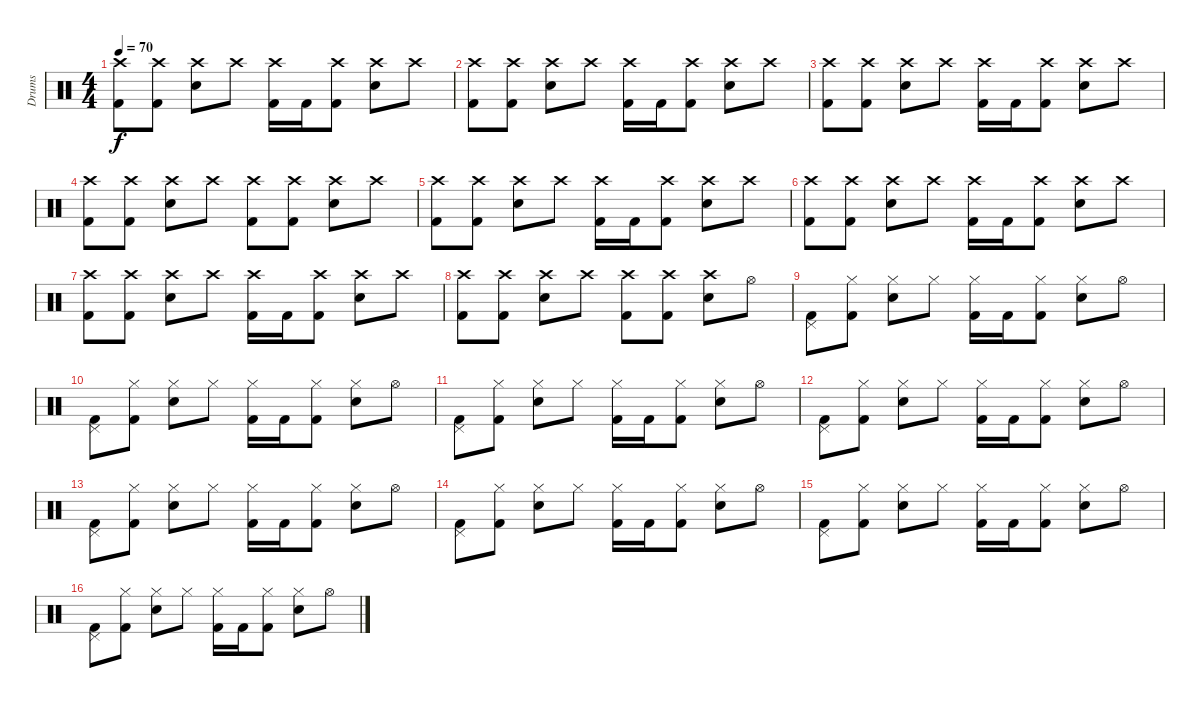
\track ("Drums" "Drums") {instrument percussion}
\staff {score}
\articulation defaults
\ts (4 4)
\tempo 70
\clef neutral
\ks c
("Crash high (hit)" "Kick (hit) 2").8{dy f} ("Crash high (hit)" "Kick (hit) 2").8 ("Crash high (hit)" "Electric Snare (hit)").8 "Crash high (hit)".8 ("Crash high (hit)" "Kick (hit) 2").16 "Kick (hit) 2".16 ("Crash high (hit)" "Kick (hit) 2").8 ("Crash high (hit)" "Electric Snare (hit)").8 "Crash high (hit)".8 |
("Crash high (hit)" "Kick (hit) 2").8 ("Crash high (hit)" "Kick (hit) 2").8 ("Crash high (hit)" "Electric Snare (hit)").8 "Crash high (hit)".8 ("Crash high (hit)" "Kick (hit) 2").16 "Kick (hit) 2".16 ("Crash high (hit)" "Kick (hit) 2").8 ("Crash high (hit)" "Electric Snare (hit)").8 "Crash high (hit)".8 |
("Crash high (hit)" "Kick (hit) 2").8 ("Crash high (hit)" "Kick (hit) 2").8 ("Crash high (hit)" "Electric Snare (hit)").8 "Crash high (hit)".8 ("Crash high (hit)" "Kick (hit) 2").16 "Kick (hit) 2".16 ("Crash high (hit)" "Kick (hit) 2").8 ("Crash high (hit)" "Electric Snare (hit)").8 "Crash high (hit)".8 |
("Crash high (hit)" "Kick (hit) 2").8 ("Crash high (hit)" "Kick (hit) 2").8 ("Crash high (hit)" "Electric Snare (hit)").8 "Crash high (hit)".8 ("Crash high (hit)" "Kick (hit) 2").8 ("Crash high (hit)" "Kick (hit) 2").8 ("Crash high (hit)" "Electric Snare (hit)").8 "Crash high (hit)".8 |
("Crash high (hit)" "Kick (hit) 2").8 ("Crash high (hit)" "Kick (hit) 2").8 ("Crash high (hit)" "Electric Snare (hit)").8 "Crash high (hit)".8 ("Crash high (hit)" "Kick (hit) 2").16 "Kick (hit) 2".16 ("Crash high (hit)" "Kick (hit) 2").8 ("Crash high (hit)" "Electric Snare (hit)").8 "Crash high (hit)".8 |
("Crash high (hit)" "Kick (hit) 2").8 ("Crash high (hit)" "Kick (hit) 2").8 ("Crash high (hit)" "Electric Snare (hit)").8 "Crash high (hit)".8 ("Crash high (hit)" "Kick (hit) 2").16 "Kick (hit) 2".16 ("Crash high (hit)" "Kick (hit) 2").8 ("Crash high (hit)" "Electric Snare (hit)").8 "Crash high (hit)".8 |
("Crash high (hit)" "Kick (hit) 2").8 ("Crash high (hit)" "Kick (hit) 2").8 ("Crash high (hit)" "Electric Snare (hit)").8 "Crash high (hit)".8 ("Crash high (hit)" "Kick (hit) 2").16 "Kick (hit) 2".16 ("Crash high (hit)" "Kick (hit) 2").8 ("Crash high (hit)" "Electric Snare (hit)").8 "Crash high (hit)".8 |
("Crash high (hit)" "Kick (hit) 2").8 ("Crash high (hit)" "Kick (hit) 2").8 ("Crash high (hit)" "Electric Snare (hit)").8 "Crash high (hit)".8 ("Crash high (hit)" "Kick (hit) 2").8 ("Crash high (hit)" "Kick (hit) 2").8 ("Crash high (hit)" "Electric Snare (hit)").8 "Hi-Hat (open)".8 |
("Pedal Hi-Hat (hit)" "Kick (hit) 2").8 ("Hi-Hat (closed)" "Kick (hit) 2").8 ("Hi-Hat (closed)" "Electric Snare (hit)").8 "Hi-Hat (closed)".8 ("Hi-Hat (closed)" "Kick (hit) 2").16 "Kick (hit) 2".16 ("Hi-Hat (closed)" "Kick (hit) 2").8 ("Hi-Hat (closed)" "Electric Snare (hit)").8 "Hi-Hat (open)".8 |
("Pedal Hi-Hat (hit)" "Kick (hit) 2").8 ("Hi-Hat (closed)" "Kick (hit) 2").8 ("Hi-Hat (closed)" "Electric Snare (hit)").8 "Hi-Hat (closed)".8 ("Hi-Hat (closed)" "Kick (hit) 2").16 "Kick (hit) 2".16 ("Hi-Hat (closed)" "Kick (hit) 2").8 ("Hi-Hat (closed)" "Electric Snare (hit)").8 "Hi-Hat (open)".8 |
("Pedal Hi-Hat (hit)" "Kick (hit) 2").8 ("Hi-Hat (closed)" "Kick (hit) 2").8 ("Hi-Hat (closed)" "Electric Snare (hit)").8 "Hi-Hat (closed)".8 ("Hi-Hat (closed)" "Kick (hit) 2").16 "Kick (hit) 2".16 ("Hi-Hat (closed)" "Kick (hit) 2").8 ("Hi-Hat (closed)" "Electric Snare (hit)").8 "Hi-Hat (open)".8 |
("Pedal Hi-Hat (hit)" "Kick (hit) 2").8 ("Hi-Hat (closed)" "Kick (hit) 2").8 ("Hi-Hat (closed)" "Electric Snare (hit)").8 "Hi-Hat (closed)".8 ("Hi-Hat (closed)" "Kick (hit) 2").16 "Kick (hit) 2".16 ("Hi-Hat (closed)" "Kick (hit) 2").8 ("Hi-Hat (closed)" "Electric Snare (hit)").8 "Hi-Hat (open)".8 |
("Pedal Hi-Hat (hit)" "Kick (hit) 2").8 ("Hi-Hat (closed)" "Kick (hit) 2").8 ("Hi-Hat (closed)" "Electric Snare (hit)").8 "Hi-Hat (closed)".8 ("Hi-Hat (closed)" "Kick (hit) 2").16 "Kick (hit) 2".16 ("Hi-Hat (closed)" "Kick (hit) 2").8 ("Hi-Hat (closed)" "Electric Snare (hit)").8 "Hi-Hat (open)".8 |
("Pedal Hi-Hat (hit)" "Kick (hit) 2").8 ("Hi-Hat (closed)" "Kick (hit) 2").8 ("Hi-Hat (closed)" "Electric Snare (hit)").8 "Hi-Hat (closed)".8 ("Hi-Hat (closed)" "Kick (hit) 2").16 "Kick (hit) 2".16 ("Hi-Hat (closed)" "Kick (hit) 2").8 ("Hi-Hat (closed)" "Electric Snare (hit)").8 "Hi-Hat (open)".8 |
("Pedal Hi-Hat (hit)" "Kick (hit) 2").8 ("Hi-Hat (closed)" "Kick (hit) 2").8 ("Hi-Hat (closed)" "Electric Snare (hit)").8 "Hi-Hat (closed)".8 ("Hi-Hat (closed)" "Kick (hit) 2").16 "Kick (hit) 2".16 ("Hi-Hat (closed)" "Kick (hit) 2").8 ("Hi-Hat (closed)" "Electric Snare (hit)").8 "Hi-Hat (open)".8 |
("Pedal Hi-Hat (hit)" "Kick (hit) 2").8 ("Hi-Hat (closed)" "Kick (hit) 2").8 ("Hi-Hat (closed)" "Electric Snare (hit)").8 "Hi-Hat (closed)".8 ("Hi-Hat (closed)" "Kick (hit) 2").16 "Kick (hit) 2".16 ("Hi-Hat (closed)" "Kick (hit) 2").8 ("Hi-Hat (closed)" "Electric Snare (hit)").8 "Hi-Hat (open)".8
